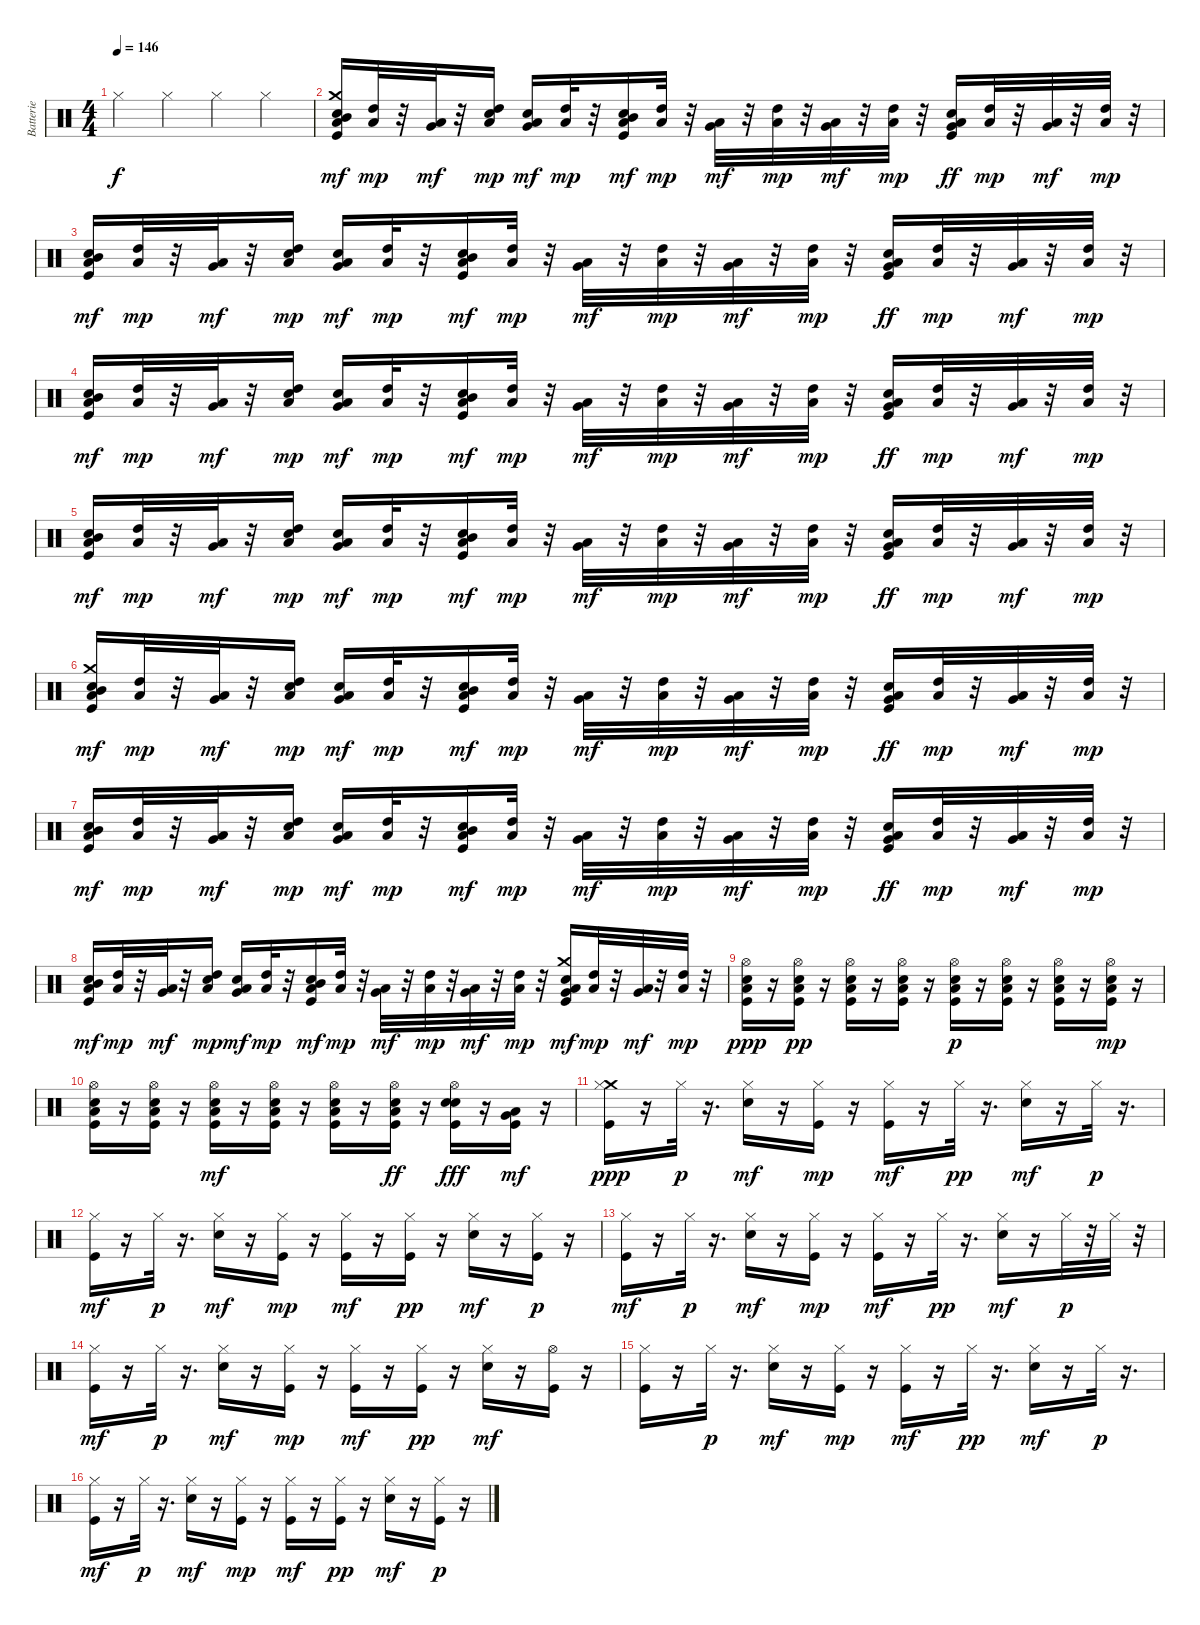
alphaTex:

\track ("Batterie" "Batterie") {instrument percussion}
\staff {score}
\articulation defaults
\ts (4 4)
\tempo 146
\clef neutral
\ks c "Hi-Hat (closed)".4{dy f} "Hi-Hat (closed)".4 "Hi-Hat (closed)".4 "Hi-Hat (closed)".4
|
("Kick (hit)" "Electric Snare (hit)" "Crash medium (hit)" "Low Tom (hit)" "Mid Tom (hit)").16{dy mf volume 8 balance 8} ("Low Floor Tom (hit)" "High Tom (hit)").32{dy mp} r.32 ("Low Floor Tom (hit)" "Very Low Tom (hit)").32{dy mf} r.32 ("Electric Snare (hit)" "Low Tom (hit)" "High Tom (hit)").16{dy mp} ("Electric Snare (hit)" "Low Tom (hit)" "Very Low Tom (hit)").16{dy mf} ("Low Floor Tom (hit)" "High Tom (hit)").32{dy mp} r.32 ("Kick (hit)" "Electric Snare (hit)" "Low Tom (hit)" "Mid Tom (hit)").16{dy mf} ("Low Floor Tom (hit)" "High Tom (hit)").32{dy mp} r.32 ("Low Floor Tom (hit)" "Very Low Tom (hit)").32{dy mf} r.32 ("Low Floor Tom (hit)" "High Tom (hit)").32{dy mp} r.32 ("Low Floor Tom (hit)" "Very Low Tom (hit)").32{dy mf} r.32 ("Low Floor Tom (hit)" "High Tom (hit)").32{dy mp} r.32 ("Very Low Tom (hit)" "Kick (hit)" "Electric Snare (hit)" "Low Floor Tom (hit)").16{dy ff} ("Low Floor Tom (hit)" "High Tom (hit)").32{dy mp} r.32 ("Low Floor Tom (hit)" "Very Low Tom (hit)").32{dy mf} r.32 ("Low Floor Tom (hit)" "High Tom (hit)").32{dy mp} r.32 |
("Kick (hit)" "Electric Snare (hit)" "Low Tom (hit)" "Mid Tom (hit)").16{dy mf} ("Low Floor Tom (hit)" "High Tom (hit)").32{dy mp} r.32 ("Low Floor Tom (hit)" "Very Low Tom (hit)").32{dy mf} r.32 ("Electric Snare (hit)" "Low Tom (hit)" "High Tom (hit)").16{dy mp} ("Electric Snare (hit)" "Low Tom (hit)" "Very Low Tom (hit)").16{dy mf} ("Low Floor Tom (hit)" "High Tom (hit)").32{dy mp} r.32 ("Kick (hit)" "Electric Snare (hit)" "Low Tom (hit)" "Mid Tom (hit)").16{dy mf} ("Low Floor Tom (hit)" "High Tom (hit)").32{dy mp} r.32 ("Low Floor Tom (hit)" "Very Low Tom (hit)").32{dy mf} r.32 ("Low Floor Tom (hit)" "High Tom (hit)").32{dy mp} r.32 ("Low Floor Tom (hit)" "Very Low Tom (hit)").32{dy mf} r.32 ("Low Floor Tom (hit)" "High Tom (hit)").32{dy mp} r.32 ("Very Low Tom (hit)" "Kick (hit)" "Electric Snare (hit)" "Low Floor Tom (hit)").16{dy ff} ("Low Floor Tom (hit)" "High Tom (hit)").32{dy mp} r.32 ("Low Floor Tom (hit)" "Very Low Tom (hit)").32{dy mf} r.32 ("Low Floor Tom (hit)" "High Tom (hit)").32{dy mp} r.32 |
("Kick (hit)" "Electric Snare (hit)" "Low Tom (hit)" "Mid Tom (hit)").16{dy mf} ("Low Floor Tom (hit)" "High Tom (hit)").32{dy mp} r.32 ("Low Floor Tom (hit)" "Very Low Tom (hit)").32{dy mf} r.32 ("Electric Snare (hit)" "Low Tom (hit)" "High Tom (hit)").16{dy mp} ("Electric Snare (hit)" "Low Tom (hit)" "Very Low Tom (hit)").16{dy mf} ("Low Floor Tom (hit)" "High Tom (hit)").32{dy mp} r.32 ("Kick (hit)" "Electric Snare (hit)" "Low Tom (hit)" "Mid Tom (hit)").16{dy mf} ("Low Floor Tom (hit)" "High Tom (hit)").32{dy mp} r.32 ("Low Floor Tom (hit)" "Very Low Tom (hit)").32{dy mf} r.32 ("Low Floor Tom (hit)" "High Tom (hit)").32{dy mp} r.32 ("Low Floor Tom (hit)" "Very Low Tom (hit)").32{dy mf} r.32 ("Low Floor Tom (hit)" "High Tom (hit)").32{dy mp} r.32 ("Very Low Tom (hit)" "Kick (hit)" "Electric Snare (hit)" "Low Floor Tom (hit)").16{dy ff} ("Low Floor Tom (hit)" "High Tom (hit)").32{dy mp} r.32 ("Low Floor Tom (hit)" "Very Low Tom (hit)").32{dy mf} r.32 ("Low Floor Tom (hit)" "High Tom (hit)").32{dy mp} r.32 |
("Kick (hit)" "Electric Snare (hit)" "Low Tom (hit)" "Mid Tom (hit)").16{dy mf} ("Low Floor Tom (hit)" "High Tom (hit)").32{dy mp} r.32 ("Low Floor Tom (hit)" "Very Low Tom (hit)").32{dy mf} r.32 ("Electric Snare (hit)" "Low Tom (hit)" "High Tom (hit)").16{dy mp} ("Electric Snare (hit)" "Low Tom (hit)" "Very Low Tom (hit)").16{dy mf} ("Low Floor Tom (hit)" "High Tom (hit)").32{dy mp} r.32 ("Kick (hit)" "Electric Snare (hit)" "Low Tom (hit)" "Mid Tom (hit)").16{dy mf} ("Low Floor Tom (hit)" "High Tom (hit)").32{dy mp} r.32 ("Low Floor Tom (hit)" "Very Low Tom (hit)").32{dy mf} r.32 ("Low Floor Tom (hit)" "High Tom (hit)").32{dy mp} r.32 ("Low Floor Tom (hit)" "Very Low Tom (hit)").32{dy mf} r.32 ("Low Floor Tom (hit)" "High Tom (hit)").32{dy mp} r.32 ("Very Low Tom (hit)" "Kick (hit)" "Electric Snare (hit)" "Low Floor Tom (hit)").16{dy ff} ("Low Floor Tom (hit)" "High Tom (hit)").32{dy mp} r.32 ("Low Floor Tom (hit)" "Very Low Tom (hit)").32{dy mf} r.32 ("Low Floor Tom (hit)" "High Tom (hit)").32{dy mp} r.32 |
("Kick (hit)" "Electric Snare (hit)" "Crash medium (hit)" "Low Tom (hit)" "Mid Tom (hit)").16{dy mf} ("Low Floor Tom (hit)" "High Tom (hit)").32{dy mp} r.32 ("Low Floor Tom (hit)" "Very Low Tom (hit)").32{dy mf} r.32 ("Electric Snare (hit)" "Low Tom (hit)" "High Tom (hit)").16{dy mp} ("Electric Snare (hit)" "Low Tom (hit)" "Very Low Tom (hit)").16{dy mf} ("Low Floor Tom (hit)" "High Tom (hit)").32{dy mp} r.32 ("Kick (hit)" "Electric Snare (hit)" "Low Tom (hit)" "Mid Tom (hit)").16{dy mf} ("Low Floor Tom (hit)" "High Tom (hit)").32{dy mp} r.32 ("Low Floor Tom (hit)" "Very Low Tom (hit)").32{dy mf} r.32 ("Low Floor Tom (hit)" "High Tom (hit)").32{dy mp} r.32 ("Low Floor Tom (hit)" "Very Low Tom (hit)").32{dy mf} r.32 ("Low Floor Tom (hit)" "High Tom (hit)").32{dy mp} r.32 ("Very Low Tom (hit)" "Kick (hit)" "Electric Snare (hit)" "Low Floor Tom (hit)").16{dy ff} ("Low Floor Tom (hit)" "High Tom (hit)").32{dy mp} r.32 ("Low Floor Tom (hit)" "Very Low Tom (hit)").32{dy mf} r.32 ("Low Floor Tom (hit)" "High Tom (hit)").32{dy mp} r.32 |
("Kick (hit)" "Electric Snare (hit)" "Low Tom (hit)" "Mid Tom (hit)").16{dy mf} ("Low Floor Tom (hit)" "High Tom (hit)").32{dy mp} r.32 ("Low Floor Tom (hit)" "Very Low Tom (hit)").32{dy mf} r.32 ("Electric Snare (hit)" "Low Tom (hit)" "High Tom (hit)").16{dy mp} ("Electric Snare (hit)" "Low Tom (hit)" "Very Low Tom (hit)").16{dy mf} ("Low Floor Tom (hit)" "High Tom (hit)").32{dy mp} r.32 ("Kick (hit)" "Electric Snare (hit)" "Low Tom (hit)" "Mid Tom (hit)").16{dy mf} ("Low Floor Tom (hit)" "High Tom (hit)").32{dy mp} r.32 ("Low Floor Tom (hit)" "Very Low Tom (hit)").32{dy mf} r.32 ("Low Floor Tom (hit)" "High Tom (hit)").32{dy mp} r.32 ("Low Floor Tom (hit)" "Very Low Tom (hit)").32{dy mf} r.32 ("Low Floor Tom (hit)" "High Tom (hit)").32{dy mp} r.32 ("Very Low Tom (hit)" "Kick (hit)" "Electric Snare (hit)" "Low Floor Tom (hit)").16{dy ff} ("Low Floor Tom (hit)" "High Tom (hit)").32{dy mp} r.32 ("Low Floor Tom (hit)" "Very Low Tom (hit)").32{dy mf} r.32 ("Low Floor Tom (hit)" "High Tom (hit)").32{dy mp} r.32 |
("Kick (hit)" "Electric Snare (hit)" "Low Tom (hit)" "Mid Tom (hit)").16{dy mf} ("Low Floor Tom (hit)" "High Tom (hit)").32{dy mp} r.32 ("Low Floor Tom (hit)" "Very Low Tom (hit)").32{dy mf} r.32 ("Electric Snare (hit)" "Low Tom (hit)" "High Tom (hit)").16{dy mp} ("Electric Snare (hit)" "Low Tom (hit)" "Very Low Tom (hit)").16{dy mf} ("Low Floor Tom (hit)" "High Tom (hit)").32{dy mp} r.32 ("Kick (hit)" "Electric Snare (hit)" "Low Tom (hit)" "Mid Tom (hit)").16{dy mf} ("Low Floor Tom (hit)" "High Tom (hit)").32{dy mp} r.32 ("Low Floor Tom (hit)" "Very Low Tom (hit)").32{dy mf} r.32 ("Low Floor Tom (hit)" "High Tom (hit)").32{dy mp} r.32 ("Low Floor Tom (hit)" "Very Low Tom (hit)").32{dy mf} r.32 ("Low Floor Tom (hit)" "High Tom (hit)").32{dy mp} r.32 ("Very Low Tom (hit)" "Kick (hit)" "Electric Snare (hit)" "Crash medium (hit)" "Low Floor Tom (hit)").16{dy mf} ("Low Floor Tom (hit)" "High Tom (hit)").32{dy mp} r.32 ("Low Floor Tom (hit)" "Very Low Tom (hit)").32{dy mf} r.32 ("Low Floor Tom (hit)" "High Tom (hit)").32{dy mp} r.32 |
("Kick (hit)" "Electric Snare (hit)" "Hi-Hat (open)" "Low Tom (hit)").16{dy ppp} r.16 ("Kick (hit)" "Electric Snare (hit)" "Hi-Hat (open)" "Low Tom (hit)").16{dy pp} r.16 ("Kick (hit)" "Electric Snare (hit)" "Hi-Hat (open)" "Low Tom (hit)").16 r.16 ("Kick (hit)" "Electric Snare (hit)" "Hi-Hat (open)" "Low Tom (hit)").16 r.16 ("Kick (hit)" "Electric Snare (hit)" "Hi-Hat (open)" "Low Tom (hit)").16{dy p} r.16 ("Kick (hit)" "Electric Snare (hit)" "Hi-Hat (open)" "Low Tom (hit)").16 r.16 ("Kick (hit)" "Electric Snare (hit)" "Hi-Hat (open)" "Low Tom (hit)").16 r.16 ("Kick (hit)" "Electric Snare (hit)" "Hi-Hat (open)" "Low Tom (hit)").16{dy mp} r.16 |
("Kick (hit)" "Electric Snare (hit)" "Hi-Hat (open)" "Low Tom (hit)").16 r.16 ("Electric Snare (hit)" "Kick (hit)" "Hi-Hat (open)" "Low Tom (hit)").16 r.16 ("Electric Snare (hit)" "Kick (hit)" "Hi-Hat (open)" "Low Tom (hit)").16{dy mf} r.16 ("Electric Snare (hit)" "Kick (hit)" "Hi-Hat (open)" "Low Tom (hit)").16 r.16 ("Electric Snare (hit)" "Kick (hit)" "Hi-Hat (open)" "Low Tom (hit)").16 r.16 ("Electric Snare (hit)" "Kick (hit)" "Hi-Hat (open)" "Low Tom (hit)").16{dy ff} r.16 ("Electric Snare (hit)" "Kick (hit)" "Electric Snare (hit)" "Hi-Hat (open)").16{dy fff} r.16 ("Very Low Tom (hit)" "Kick (hit)" "Low Tom (hit)").16{dy mf} r.16 |
("Crash medium (hit)" "Kick (hit)" "Hi-Hat (closed)").16{dy ppp} r.16 "Hi-Hat (closed)".32{dy p} r.16{d} ("Electric Snare (hit)" "Hi-Hat (closed)").16{dy mf} r.16 ("Kick (hit)" "Hi-Hat (closed)").16{dy mp} r.16 ("Kick (hit)" "Hi-Hat (closed)").16{dy mf} r.16 "Hi-Hat (closed)".32{dy pp} r.16{d} ("Electric Snare (hit)" "Hi-Hat (closed)").16{dy mf} r.16 "Hi-Hat (closed)".32{dy p} r.16{d} |
("Kick (hit)" "Hi-Hat (closed)").16{dy mf} r.16 "Hi-Hat (closed)".32{dy p} r.16{d} ("Electric Snare (hit)" "Hi-Hat (closed)").16{dy mf} r.16 ("Kick (hit)" "Hi-Hat (closed)").16{dy mp} r.16 ("Kick (hit)" "Hi-Hat (closed)").16{dy mf} r.16 ("Kick (hit)" "Hi-Hat (closed)").16{dy pp} r.16 ("Electric Snare (hit)" "Hi-Hat (closed)").16{dy mf} r.16 ("Kick (hit)" "Hi-Hat (closed)").16{dy p} r.16 |
("Kick (hit)" "Hi-Hat (closed)").16{dy mf} r.16 "Hi-Hat (closed)".32{dy p} r.16{d} ("Electric Snare (hit)" "Hi-Hat (closed)").16{dy mf} r.16 ("Kick (hit)" "Hi-Hat (closed)").16{dy mp} r.16 ("Kick (hit)" "Hi-Hat (closed)").16{dy mf} r.16 "Hi-Hat (closed)".32{dy pp} r.16{d} ("Electric Snare (hit)" "Hi-Hat (closed)").16{dy mf} r.16 "Hi-Hat (closed)".32{dy p} r.32 "Hi-Hat (closed)".32 r.32 |
("Kick (hit)" "Hi-Hat (closed)").16{dy mf} r.16 "Hi-Hat (closed)".32{dy p} r.16{d} ("Electric Snare (hit)" "Hi-Hat (closed)").16{dy mf} r.16 ("Kick (hit)" "Hi-Hat (closed)").16{dy mp} r.16 ("Kick (hit)" "Hi-Hat (closed)").16{dy mf} r.16 ("Kick (hit)" "Hi-Hat (closed)").16{dy pp} r.16 ("Electric Snare (hit)" "Hi-Hat (closed)").16{dy mf} r.16 ("Kick (hit)" "Hi-Hat (open)").16 r.16 |
("Kick (hit)" "Hi-Hat (closed)").16 r.16 "Hi-Hat (closed)".32{dy p} r.16{d} ("Electric Snare (hit)" "Hi-Hat (closed)").16{dy mf} r.16 ("Kick (hit)" "Hi-Hat (closed)").16{dy mp} r.16 ("Kick (hit)" "Hi-Hat (closed)").16{dy mf} r.16 "Hi-Hat (closed)".32{dy pp} r.16{d} ("Electric Snare (hit)" "Hi-Hat (closed)").16{dy mf} r.16 "Hi-Hat (closed)".32{dy p} r.16{d} |
("Kick (hit)" "Hi-Hat (closed)").16{dy mf} r.16 "Hi-Hat (closed)".32{dy p} r.16{d} ("Electric Snare (hit)" "Hi-Hat (closed)").16{dy mf} r.16 ("Kick (hit)" "Hi-Hat (closed)").16{dy mp} r.16 ("Kick (hit)" "Hi-Hat (closed)").16{dy mf} r.16 ("Kick (hit)" "Hi-Hat (closed)").16{dy pp} r.16 ("Electric Snare (hit)" "Hi-Hat (closed)").16{dy mf} r.16 ("Kick (hit)" "Hi-Hat (closed)").16{dy p} r.16
